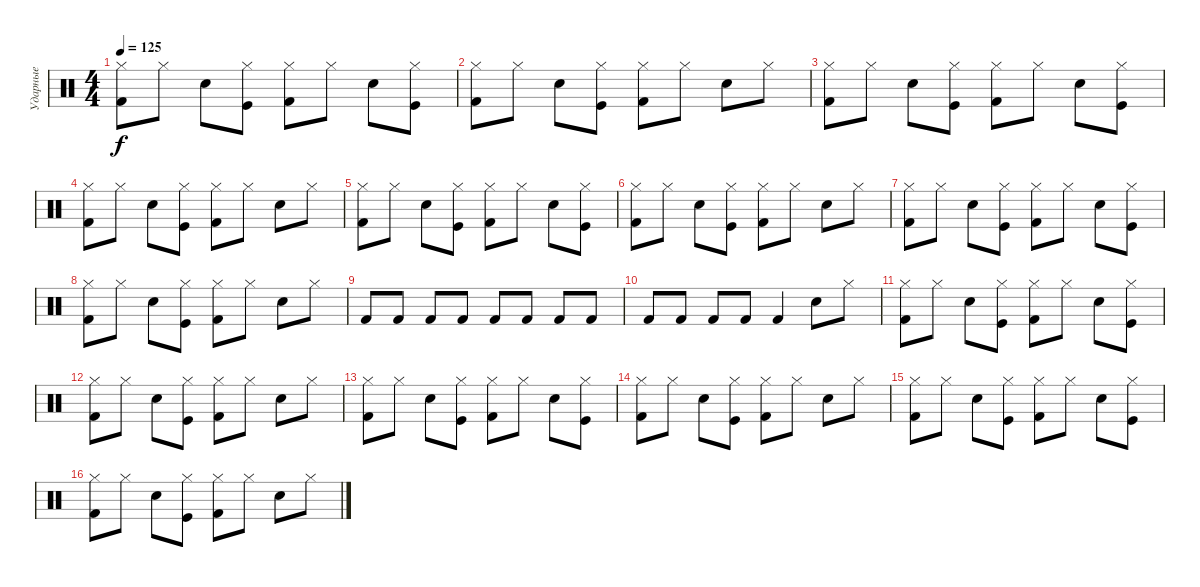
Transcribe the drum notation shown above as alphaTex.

\track ("Ударные" "Ударные") {instrument percussion}
\staff {score}
\articulation defaults
\ts (4 4)
\tempo 125
\clef neutral
\ks c
("Hi-Hat (closed)" "Kick (hit) 2").8{dy f} "Hi-Hat (closed)".8 "Electric Snare (hit)".8 ("Hi-Hat (closed)" "Kick (hit)").8 ("Hi-Hat (closed)" "Kick (hit) 2").8 "Hi-Hat (closed)".8 "Electric Snare (hit)".8 ("Hi-Hat (closed)" "Kick (hit)").8 |
("Hi-Hat (closed)" "Kick (hit) 2").8 "Hi-Hat (closed)".8 "Electric Snare (hit)".8 ("Hi-Hat (closed)" "Kick (hit)").8 ("Hi-Hat (closed)" "Kick (hit) 2").8 "Hi-Hat (closed)".8 "Electric Snare (hit)".8 "Hi-Hat (closed)".8 |
("Hi-Hat (closed)" "Kick (hit) 2").8 "Hi-Hat (closed)".8 "Electric Snare (hit)".8 ("Hi-Hat (closed)" "Kick (hit)").8 ("Hi-Hat (closed)" "Kick (hit) 2").8 "Hi-Hat (closed)".8 "Electric Snare (hit)".8 ("Hi-Hat (closed)" "Kick (hit)").8 |
("Hi-Hat (closed)" "Kick (hit) 2").8 "Hi-Hat (closed)".8 "Electric Snare (hit)".8 ("Hi-Hat (closed)" "Kick (hit)").8 ("Hi-Hat (closed)" "Kick (hit) 2").8 "Hi-Hat (closed)".8 "Electric Snare (hit)".8 "Hi-Hat (closed)".8 |
("Hi-Hat (closed)" "Kick (hit) 2").8 "Hi-Hat (closed)".8 "Electric Snare (hit)".8 ("Hi-Hat (closed)" "Kick (hit)").8 ("Hi-Hat (closed)" "Kick (hit) 2").8 "Hi-Hat (closed)".8 "Electric Snare (hit)".8 ("Hi-Hat (closed)" "Kick (hit)").8 |
("Hi-Hat (closed)" "Kick (hit) 2").8 "Hi-Hat (closed)".8 "Electric Snare (hit)".8 ("Hi-Hat (closed)" "Kick (hit)").8 ("Hi-Hat (closed)" "Kick (hit) 2").8 "Hi-Hat (closed)".8 "Electric Snare (hit)".8 "Hi-Hat (closed)".8 |
("Hi-Hat (closed)" "Kick (hit) 2").8 "Hi-Hat (closed)".8 "Electric Snare (hit)".8 ("Hi-Hat (closed)" "Kick (hit)").8 ("Hi-Hat (closed)" "Kick (hit) 2").8 "Hi-Hat (closed)".8 "Electric Snare (hit)".8 ("Hi-Hat (closed)" "Kick (hit)").8 |
("Hi-Hat (closed)" "Kick (hit) 2").8 "Hi-Hat (closed)".8 "Electric Snare (hit)".8 ("Hi-Hat (closed)" "Kick (hit)").8 ("Hi-Hat (closed)" "Kick (hit) 2").8 "Hi-Hat (closed)".8 "Electric Snare (hit)".8 "Hi-Hat (closed)".8 |
"Kick (hit) 2".8 "Kick (hit) 2".8 "Kick (hit) 2".8 "Kick (hit) 2".8 "Kick (hit) 2".8 "Kick (hit) 2".8 "Kick (hit) 2".8 "Kick (hit) 2".8 |
"Kick (hit) 2".8 "Kick (hit) 2".8 "Kick (hit) 2".8 "Kick (hit) 2".8 "Kick (hit) 2".4 "Electric Snare (hit)".8 "Hi-Hat (closed)".8 |
("Hi-Hat (closed)" "Kick (hit) 2").8 "Hi-Hat (closed)".8 "Electric Snare (hit)".8 ("Hi-Hat (closed)" "Kick (hit)").8 ("Hi-Hat (closed)" "Kick (hit) 2").8 "Hi-Hat (closed)".8 "Electric Snare (hit)".8 ("Hi-Hat (closed)" "Kick (hit)").8 |
("Hi-Hat (closed)" "Kick (hit) 2").8 "Hi-Hat (closed)".8 "Electric Snare (hit)".8 ("Hi-Hat (closed)" "Kick (hit)").8 ("Hi-Hat (closed)" "Kick (hit) 2").8 "Hi-Hat (closed)".8 "Electric Snare (hit)".8 "Hi-Hat (closed)".8 |
("Hi-Hat (closed)" "Kick (hit) 2").8 "Hi-Hat (closed)".8 "Electric Snare (hit)".8 ("Hi-Hat (closed)" "Kick (hit)").8 ("Hi-Hat (closed)" "Kick (hit) 2").8 "Hi-Hat (closed)".8 "Electric Snare (hit)".8 ("Hi-Hat (closed)" "Kick (hit)").8 |
("Hi-Hat (closed)" "Kick (hit) 2").8 "Hi-Hat (closed)".8 "Electric Snare (hit)".8 ("Hi-Hat (closed)" "Kick (hit)").8 ("Hi-Hat (closed)" "Kick (hit) 2").8 "Hi-Hat (closed)".8 "Electric Snare (hit)".8 "Hi-Hat (closed)".8 |
("Hi-Hat (closed)" "Kick (hit) 2").8 "Hi-Hat (closed)".8 "Electric Snare (hit)".8 ("Hi-Hat (closed)" "Kick (hit)").8 ("Hi-Hat (closed)" "Kick (hit) 2").8 "Hi-Hat (closed)".8 "Electric Snare (hit)".8 ("Hi-Hat (closed)" "Kick (hit)").8 |
("Hi-Hat (closed)" "Kick (hit) 2").8 "Hi-Hat (closed)".8 "Electric Snare (hit)".8 ("Hi-Hat (closed)" "Kick (hit)").8 ("Hi-Hat (closed)" "Kick (hit) 2").8 "Hi-Hat (closed)".8 "Electric Snare (hit)".8 "Hi-Hat (closed)".8
